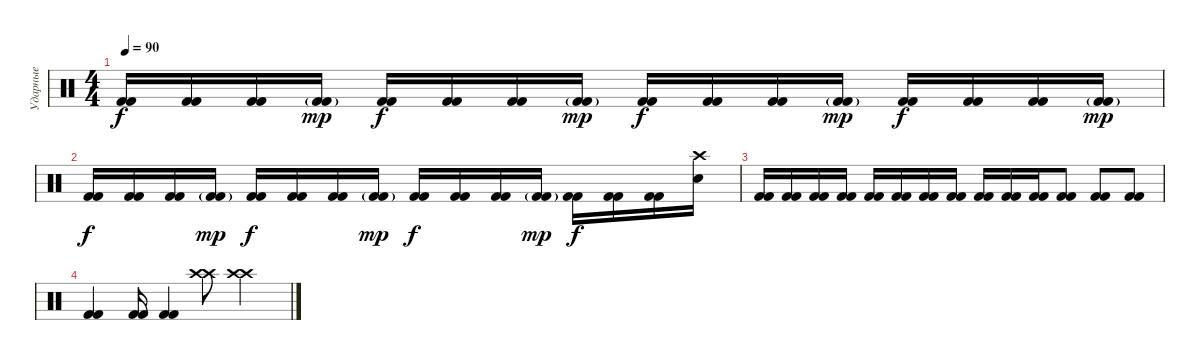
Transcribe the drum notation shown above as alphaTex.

\track ("Ударные" "Ударные") {instrument percussion}
\staff {score}
\articulation defaults
\ts (4 4)
\tempo 90
\clef neutral
\ks c
("Kick (hit) 2" "Kick (hit) 2").16{dy f} ("Kick (hit) 2" "Kick (hit) 2").16 ("Kick (hit) 2" "Kick (hit) 2").16 ("Kick (hit) 2"{g} "Kick (hit) 2"{g}).16{dy mp} ("Kick (hit) 2" "Kick (hit) 2").16{dy f} ("Kick (hit) 2" "Kick (hit) 2").16 ("Kick (hit) 2" "Kick (hit) 2").16 ("Kick (hit) 2"{g} "Kick (hit) 2"{g}).16{dy mp} ("Kick (hit) 2" "Kick (hit) 2").16{dy f} ("Kick (hit) 2" "Kick (hit) 2").16 ("Kick (hit) 2" "Kick (hit) 2").16 ("Kick (hit) 2"{g} "Kick (hit) 2"{g}).16{dy mp} ("Kick (hit) 2" "Kick (hit) 2").16{dy f} ("Kick (hit) 2" "Kick (hit) 2").16 ("Kick (hit) 2" "Kick (hit) 2").16 ("Kick (hit) 2"{g} "Kick (hit) 2"{g}).16{dy mp} |
("Kick (hit) 2" "Kick (hit) 2").16{dy f} ("Kick (hit) 2" "Kick (hit) 2").16 ("Kick (hit) 2" "Kick (hit) 2").16 ("Kick (hit) 2"{g} "Kick (hit) 2"{g}).16{dy mp} ("Kick (hit) 2" "Kick (hit) 2").16{dy f} ("Kick (hit) 2" "Kick (hit) 2").16 ("Kick (hit) 2" "Kick (hit) 2").16 ("Kick (hit) 2"{g} "Kick (hit) 2"{g}).16{dy mp} ("Kick (hit) 2" "Kick (hit) 2").16{dy f} ("Kick (hit) 2" "Kick (hit) 2").16 ("Kick (hit) 2" "Kick (hit) 2").16 ("Kick (hit) 2"{g} "Kick (hit) 2"{g}).16{dy mp} ("Kick (hit) 2" "Kick (hit) 2").16{dy f} ("Kick (hit) 2" "Kick (hit) 2").16 ("Kick (hit) 2" "Kick (hit) 2").16 ("Electric Snare (hit)" "Crash high (hit)").16 |
("Kick (hit) 2" "Kick (hit) 2").16 ("Kick (hit) 2" "Kick (hit) 2").16 ("Kick (hit) 2" "Kick (hit) 2").16 ("Kick (hit) 2" "Kick (hit) 2").16 ("Kick (hit) 2" "Kick (hit) 2").16 ("Kick (hit) 2" "Kick (hit) 2").16 ("Kick (hit) 2" "Kick (hit) 2").16 ("Kick (hit) 2" "Kick (hit) 2").16 ("Kick (hit) 2" "Kick (hit) 2").16 ("Kick (hit) 2" "Kick (hit) 2").16 ("Kick (hit) 2" "Kick (hit) 2").16 ("Kick (hit) 2" "Kick (hit) 2").8 ("Kick (hit) 2" "Kick (hit) 2").8 ("Kick (hit) 2" "Kick (hit) 2").8 |
("Kick (hit) 2" "Kick (hit) 2").4 ("Kick (hit) 2" "Kick (hit) 2").16 ("Kick (hit) 2" "Kick (hit) 2").4 ("Crash high (hit)" "Crash high (hit)").8 ("Crash high (hit)" "Crash high (hit)").4
